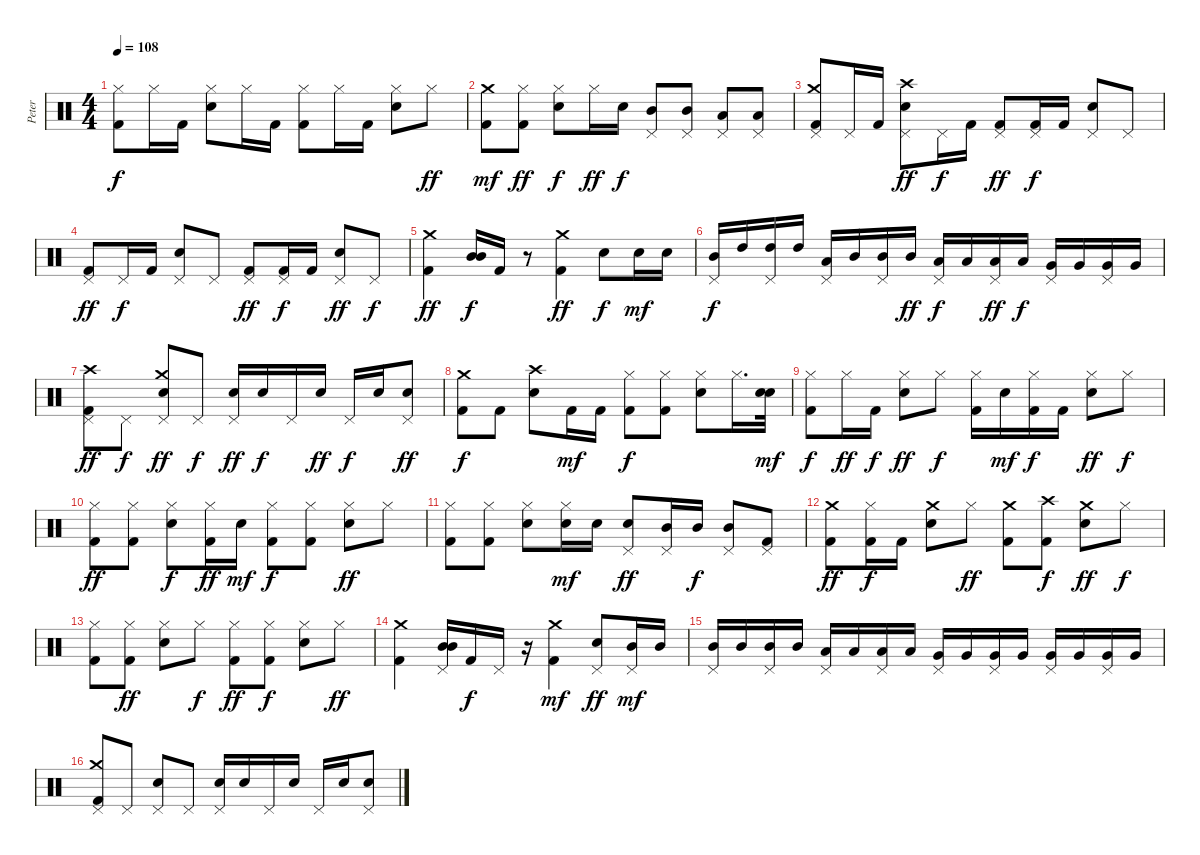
\track ("Peter" "Peter") {instrument percussion}
\staff {score}
\articulation defaults
\ts (4 4)
\tempo 108
\clef neutral
\ks c
("Hi-Hat (closed)" "Kick (hit) 2").8{dy f} "Hi-Hat (closed)".16 "Kick (hit) 2".16 ("Electric Snare (hit)" "Hi-Hat (closed)").8 "Hi-Hat (closed)".16 "Kick (hit) 2".16 ("Hi-Hat (closed)" "Kick (hit) 2").8 "Hi-Hat (closed)".16 "Kick (hit) 2".16 ("Hi-Hat (closed)" "Electric Snare (hit)").8 "Hi-Hat (closed)".8{dy ff} |
("Kick (hit) 2" "Crash medium (hit)").8{dy mf} ("Kick (hit) 2" "Hi-Hat (closed)").8{dy ff} ("Hi-Hat (closed)" "Electric Snare (hit)").8{dy f} "Hi-Hat (closed)".16{dy ff} "Electric Snare (hit)".16{dy f} ("Mid Tom (hit)" "Pedal Hi-Hat (hit)").8 ("Mid Tom (hit)" "Pedal Hi-Hat (hit)").8 ("Pedal Hi-Hat (hit)" "Low Tom (hit)").8 ("Pedal Hi-Hat (hit)" "Low Tom (hit)").8 |
("Pedal Hi-Hat (hit)" "Crash medium (hit)" "Kick (hit) 2").8 "Pedal Hi-Hat (hit)".16 "Kick (hit) 2".16 ("Crash high (hit)" "Pedal Hi-Hat (hit)" "Electric Snare (hit)").8{dy ff} "Pedal Hi-Hat (hit)".16{dy f} "Kick (hit) 2".16 ("Pedal Hi-Hat (hit)" "Kick (hit) 2").8{dy ff} ("Pedal Hi-Hat (hit)" "Kick (hit) 2").16{dy f} "Kick (hit) 2".16 ("Pedal Hi-Hat (hit)" "Electric Snare (hit)").8 "Pedal Hi-Hat (hit)".8 |
("Pedal Hi-Hat (hit)" "Kick (hit) 2").8{dy ff} "Pedal Hi-Hat (hit)".16{dy f} "Kick (hit) 2".16 ("Pedal Hi-Hat (hit)" "Electric Snare (hit)").8 "Pedal Hi-Hat (hit)".8 ("Kick (hit) 2" "Pedal Hi-Hat (hit)").8{dy ff} ("Pedal Hi-Hat (hit)" "Kick (hit) 2").16{dy f} "Kick (hit) 2".16 ("Pedal Hi-Hat (hit)" "Electric Snare (hit)").8{dy ff} "Pedal Hi-Hat (hit)".8{dy f} |
("Crash medium (hit)" "Kick (hit) 2").4{dy ff} ("Mid Tom (hit)" "Mid Tom (hit)").16{dy f} "Kick (hit) 2".16 r.8 ("Kick (hit) 2" "Crash medium (hit)").4{dy ff} "Electric Snare (hit)".8{dy f} "Electric Snare (hit)".16{dy mf} "Electric Snare (hit)".16 |
("Pedal Hi-Hat (hit)" "Mid Tom (hit)").16{dy f} "High Tom (hit)".16 ("Pedal Hi-Hat (hit)" "High Tom (hit)").16 "High Tom (hit)".16 ("Low Tom (hit)" "Pedal Hi-Hat (hit)").16 "Mid Tom (hit)".16 ("Pedal Hi-Hat (hit)" "Mid Tom (hit)").16 "Mid Tom (hit)".16{dy ff} ("Low Tom (hit)" "Pedal Hi-Hat (hit)").16{dy f} "Low Tom (hit)".16 ("Low Tom (hit)" "Pedal Hi-Hat (hit)").16{dy ff} "Low Tom (hit)".16{dy f} ("Very Low Tom (hit)" "Pedal Hi-Hat (hit)").16 "Very Low Tom (hit)".16 ("Very Low Tom (hit)" "Pedal Hi-Hat (hit)").16 "Very Low Tom (hit)".16 |
("Pedal Hi-Hat (hit)" "Crash high (hit)" "Kick (hit) 2").8{dy ff} "Pedal Hi-Hat (hit)".8{dy f} ("Electric Snare (hit)" "Crash medium (hit)" "Pedal Hi-Hat (hit)").8{dy ff} "Pedal Hi-Hat (hit)".8{dy f} ("Electric Snare (hit)" "Pedal Hi-Hat (hit)").16{dy ff} "Electric Snare (hit)".16{dy f} "Pedal Hi-Hat (hit)".16 "Electric Snare (hit)".16{dy ff} "Pedal Hi-Hat (hit)".16{dy f} "Electric Snare (hit)".16 ("Electric Snare (hit)" "Pedal Hi-Hat (hit)").8{dy ff} |
("Kick (hit) 2" "Crash medium (hit)").8{dy f} "Kick (hit) 2".8 ("Electric Snare (hit)" "Crash high (hit)").8 "Kick (hit) 2".16{dy mf} "Kick (hit) 2".16 ("Kick (hit) 2" "Hi-Hat (closed)").8{dy f} ("Kick (hit) 2" "Hi-Hat (closed)").8 ("Hi-Hat (closed)" "Electric Snare (hit)").8 "Hi-Hat (closed)".16{d} ("Electric Snare (hit)" "Electric Snare (hit)").32{dy mf} |
("Kick (hit) 2" "Hi-Hat (closed)").8{dy f} "Hi-Hat (closed)".16{dy ff} "Kick (hit) 2".16{dy f} ("Electric Snare (hit)" "Hi-Hat (closed)").8{dy ff} "Hi-Hat (closed)".8{dy f} ("Hi-Hat (closed)" "Kick (hit) 2").16 "Electric Snare (hit)".16{dy mf} ("Hi-Hat (closed)" "Kick (hit) 2").16{dy f} "Kick (hit) 2".16 ("Hi-Hat (closed)" "Electric Snare (hit)").8{dy ff} "Hi-Hat (closed)".8{dy f} |
("Kick (hit) 2" "Hi-Hat (closed)").8{dy ff} ("Hi-Hat (closed)" "Kick (hit) 2").8 ("Electric Snare (hit)" "Hi-Hat (closed)").8{dy f} ("Kick (hit) 2" "Hi-Hat (closed)").16{dy ff} "Electric Snare (hit)".16{dy mf} ("Hi-Hat (closed)" "Kick (hit) 2").8{dy f} ("Hi-Hat (closed)" "Kick (hit) 2").8 ("Electric Snare (hit)" "Hi-Hat (closed)").8{dy ff} "Hi-Hat (closed)".8 |
("Kick (hit) 2" "Hi-Hat (closed)").8 ("Kick (hit) 2" "Hi-Hat (closed)").8 ("Hi-Hat (closed)" "Electric Snare (hit)").8 ("Electric Snare (hit)" "Hi-Hat (closed)").16{dy mf} "Electric Snare (hit)".16 ("Electric Snare (hit)" "Pedal Hi-Hat (hit)").8{dy ff} ("Mid Tom (hit)" "Pedal Hi-Hat (hit)").16 "Mid Tom (hit)".16{dy f} ("Mid Tom (hit)" "Pedal Hi-Hat (hit)").8 ("Kick (hit) 2" "Pedal Hi-Hat (hit)").8 |
("Kick (hit) 2" "Crash medium (hit)").8{dy ff} ("Kick (hit) 2" "Hi-Hat (closed)").16{dy f} "Kick (hit) 2".16 ("Electric Snare (hit)" "Crash medium (hit)").8 "Hi-Hat (closed)".8{dy ff} ("Crash medium (hit)" "Kick (hit) 2").8 ("Kick (hit) 2" "Crash high (hit)").8{dy f} ("Electric Snare (hit)" "Crash medium (hit)").8{dy ff} "Hi-Hat (closed)".8{dy f} |
("Hi-Hat (closed)" "Kick (hit) 2").8 ("Kick (hit) 2" "Hi-Hat (closed)").8{dy ff} ("Hi-Hat (closed)" "Electric Snare (hit)").8 "Hi-Hat (closed)".8{dy f} ("Hi-Hat (closed)" "Kick (hit) 2").8{dy ff} ("Kick (hit) 2" "Hi-Hat (closed)").8{dy f} ("Hi-Hat (closed)" "Electric Snare (hit)").8 "Hi-Hat (closed)".8{dy ff} |
("Kick (hit) 2" "Crash medium (hit)").4 ("Mid Tom (hit)" "Pedal Hi-Hat (hit)" "Mid Tom (hit)").16 "Kick (hit) 2".16{dy f} "Pedal Hi-Hat (hit)".16 r.16 ("Kick (hit) 2" "Crash medium (hit)").4{dy mf} ("Electric Snare (hit)" "Pedal Hi-Hat (hit)").8{dy ff} ("Pedal Hi-Hat (hit)" "Mid Tom (hit)").16{dy mf} "Mid Tom (hit)".16 |
("Mid Tom (hit)" "Pedal Hi-Hat (hit)").16 "Mid Tom (hit)".16 ("Pedal Hi-Hat (hit)" "Mid Tom (hit)").16 "Mid Tom (hit)".16 ("Pedal Hi-Hat (hit)" "Low Tom (hit)").16 "Low Tom (hit)".16 ("Low Tom (hit)" "Pedal Hi-Hat (hit)").16 "Low Tom (hit)".16 ("Very Low Tom (hit)" "Pedal Hi-Hat (hit)").16 "Very Low Tom (hit)".16 ("Very Low Tom (hit)" "Pedal Hi-Hat (hit)").16 "Very Low Tom (hit)".16 ("Pedal Hi-Hat (hit)" "Very Low Tom (hit)").16 "Very Low Tom (hit)".16 ("Pedal Hi-Hat (hit)" "Very Low Tom (hit)").16 "Very Low Tom (hit)".16 |
("Kick (hit) 2" "Crash medium (hit)" "Pedal Hi-Hat (hit)").8 "Pedal Hi-Hat (hit)".8 ("Electric Snare (hit)" "Pedal Hi-Hat (hit)").8 "Pedal Hi-Hat (hit)".8 ("Pedal Hi-Hat (hit)" "Electric Snare (hit)").16 "Electric Snare (hit)".16 "Pedal Hi-Hat (hit)".16 "Electric Snare (hit)".16 "Pedal Hi-Hat (hit)".16 "Electric Snare (hit)".16 ("Pedal Hi-Hat (hit)" "Electric Snare (hit)").8
